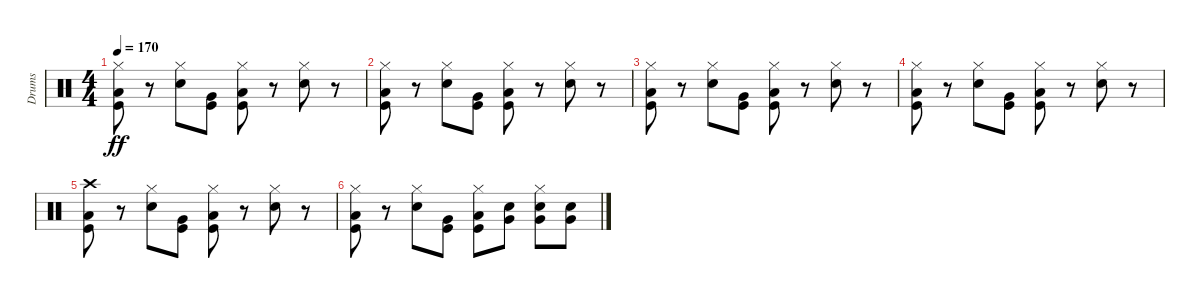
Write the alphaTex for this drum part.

\track ("Drums" "Drums") {instrument percussion}
\staff {score}
\articulation defaults
\ts (4 4)
\tempo 170
\clef neutral
\ks c
("Hi-Hat (closed)" "Low Floor Tom (hit)" "Kick (hit)").8{dy ff} r.8 ("Hi-Hat (closed)" "Snare (hit) 2").8 ("Very Low Tom (hit)" "Kick (hit)").8 ("Hi-Hat (closed)" "Low Floor Tom (hit)" "Kick (hit)").8 r.8 ("Hi-Hat (closed)" "Snare (hit) 2").8 r.8 |
("Hi-Hat (closed)" "Low Floor Tom (hit)" "Kick (hit)").8 r.8 ("Hi-Hat (closed)" "Snare (hit) 2").8 ("Very Low Tom (hit)" "Kick (hit)").8 ("Hi-Hat (closed)" "Low Floor Tom (hit)" "Kick (hit)").8 r.8 ("Hi-Hat (closed)" "Snare (hit) 2").8 r.8 |
("Hi-Hat (closed)" "Low Floor Tom (hit)" "Kick (hit)").8 r.8 ("Hi-Hat (closed)" "Snare (hit) 2").8 ("Very Low Tom (hit)" "Kick (hit)").8 ("Hi-Hat (closed)" "Low Floor Tom (hit)" "Kick (hit)").8 r.8 ("Hi-Hat (closed)" "Snare (hit) 2").8 r.8 |
("Hi-Hat (closed)" "Low Floor Tom (hit)" "Kick (hit)").8 r.8 ("Hi-Hat (closed)" "Snare (hit) 2").8 ("Very Low Tom (hit)" "Kick (hit)").8 ("Hi-Hat (closed)" "Low Floor Tom (hit)" "Kick (hit)").8 r.8 ("Hi-Hat (closed)" "Snare (hit) 2").8 r.8 |
("Crash high (hit)" "Low Floor Tom (hit)" "Kick (hit)").8 r.8 ("Hi-Hat (closed)" "Snare (hit) 2").8 ("Very Low Tom (hit)" "Kick (hit)").8 ("Hi-Hat (closed)" "Low Floor Tom (hit)" "Kick (hit)").8 r.8 ("Hi-Hat (closed)" "Snare (hit) 2").8 r.8 |
("Hi-Hat (closed)" "Low Floor Tom (hit)" "Kick (hit)").8 r.8 ("Hi-Hat (closed)" "Snare (hit) 2").8 ("Very Low Tom (hit)" "Kick (hit)").8 ("Hi-Hat (closed)" "Low Floor Tom (hit)" "Kick (hit)").8 ("Snare (hit) 2" "Very Low Tom (hit)").8 ("Hi-Hat (closed)" "Snare (hit) 2" "Very Low Tom (hit)").8 ("Snare (hit) 2" "Very Low Tom (hit)").8
